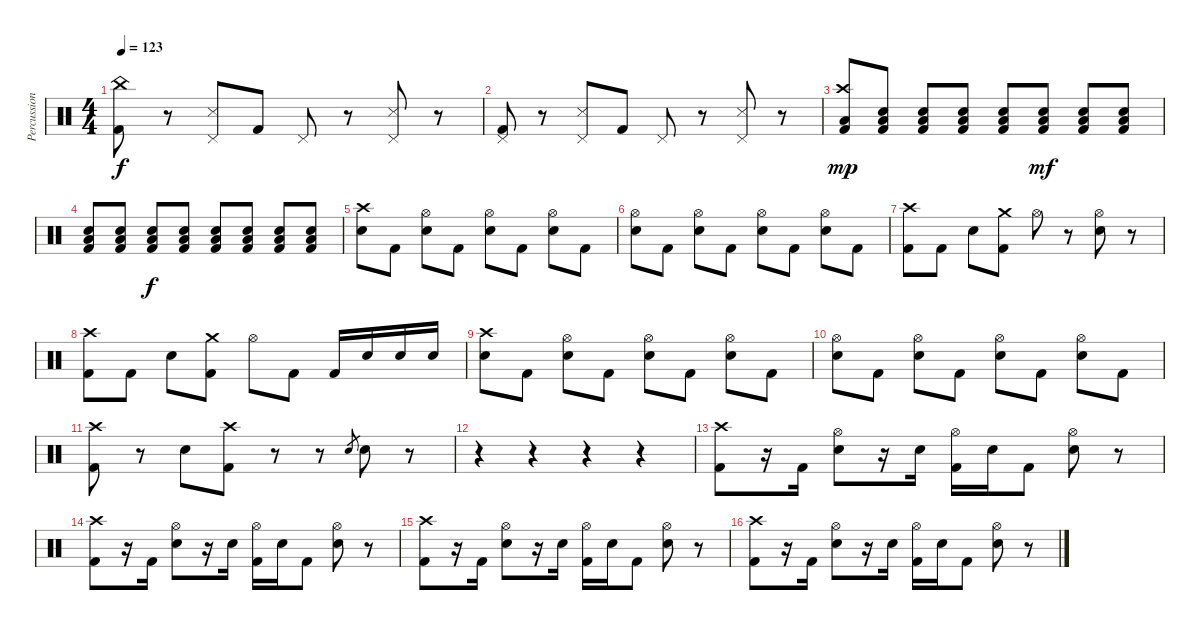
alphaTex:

\track ("Percussioni" "Percussion") {instrument percussion}
\staff {score}
\articulation defaults
\ts (4 4)
\tempo 123
\clef neutral
\ks c
("China (hit)" "Kick (hit) 2").8{dy f} r.8 ("Pedal Hi-Hat (hit)" "Snare (side stick) 3").8 "Kick (hit) 2".8 "Pedal Hi-Hat (hit)".8 r.8 ("Pedal Hi-Hat (hit)" "Snare (side stick) 3").8 r.8 |
("Pedal Hi-Hat (hit)" "Kick (hit) 2").8 r.8 ("Pedal Hi-Hat (hit)" "Snare (side stick) 3").8 "Kick (hit) 2".8 "Pedal Hi-Hat (hit)".8 r.8 ("Pedal Hi-Hat (hit)" "Snare (side stick) 3").8 r.8 |
("Crash high (hit)" "Kick (hit) 2" "Low Floor Tom (hit)").8{dy mp} ("Electric Snare (hit)" "Kick (hit) 2" "Low Floor Tom (hit)").8 ("Electric Snare (hit)" "Kick (hit) 2" "Low Floor Tom (hit)").8 ("Electric Snare (hit)" "Kick (hit) 2" "Low Floor Tom (hit)").8 ("Electric Snare (hit)" "Kick (hit) 2" "Low Floor Tom (hit)").8 ("Electric Snare (hit)" "Kick (hit) 2" "Low Floor Tom (hit)").8{dy mf} ("Electric Snare (hit)" "Kick (hit) 2" "Low Floor Tom (hit)").8 ("Electric Snare (hit)" "Kick (hit) 2" "Low Floor Tom (hit)").8 |
("Electric Snare (hit)" "Kick (hit) 2" "Low Floor Tom (hit)").8 ("Electric Snare (hit)" "Kick (hit) 2" "Low Floor Tom (hit)").8 ("Electric Snare (hit)" "Kick (hit) 2" "Low Floor Tom (hit)").8{dy f} ("Electric Snare (hit)" "Kick (hit) 2" "Low Floor Tom (hit)").8 ("Electric Snare (hit)" "Kick (hit) 2" "Low Floor Tom (hit)").8 ("Electric Snare (hit)" "Kick (hit) 2" "Low Floor Tom (hit)").8 ("Electric Snare (hit)" "Kick (hit) 2" "Low Floor Tom (hit)").8 ("Electric Snare (hit)" "Kick (hit) 2" "Low Floor Tom (hit)").8 |
("Crash high (hit)" "Electric Snare (hit)").8 "Kick (hit) 2".8 ("Hi-Hat (open)" "Electric Snare (hit)").8 "Kick (hit) 2".8 ("Hi-Hat (open)" "Electric Snare (hit)").8 "Kick (hit) 2".8 ("Hi-Hat (open)" "Electric Snare (hit)").8 "Kick (hit) 2".8 |
("Hi-Hat (open)" "Electric Snare (hit)").8 "Kick (hit) 2".8 ("Hi-Hat (open)" "Electric Snare (hit)").8 "Kick (hit) 2".8 ("Hi-Hat (open)" "Electric Snare (hit)").8 "Kick (hit) 2".8 ("Hi-Hat (open)" "Electric Snare (hit)").8 "Kick (hit) 2".8 |
("Crash high (hit)" "Kick (hit) 2").8 "Kick (hit) 2".8 "Electric Snare (hit)".8 ("Crash medium (hit)" "Kick (hit) 2").8 "Hi-Hat (open)".8 r.8 ("Hi-Hat (open)" "Electric Snare (hit)").8 r.8 |
("Crash high (hit)" "Kick (hit) 2").8 "Kick (hit) 2".8 "Electric Snare (hit)".8 ("Crash medium (hit)" "Kick (hit) 2").8 "Hi-Hat (open)".8 "Kick (hit) 2".8 "Kick (hit) 2".16 "Electric Snare (hit)".16 "Electric Snare (hit)".16 "Electric Snare (hit)".16 |
("Crash high (hit)" "Electric Snare (hit)").8 "Kick (hit) 2".8 ("Hi-Hat (open)" "Electric Snare (hit)").8 "Kick (hit) 2".8 ("Hi-Hat (open)" "Electric Snare (hit)").8 "Kick (hit) 2".8 ("Hi-Hat (open)" "Electric Snare (hit)").8 "Kick (hit) 2".8 |
("Hi-Hat (open)" "Electric Snare (hit)").8 "Kick (hit) 2".8 ("Hi-Hat (open)" "Electric Snare (hit)").8 "Kick (hit) 2".8 ("Hi-Hat (open)" "Electric Snare (hit)").8 "Kick (hit) 2".8 ("Hi-Hat (open)" "Electric Snare (hit)").8 "Kick (hit) 2".8 |
("Crash high (hit)" "Kick (hit) 2").8 r.8 "Electric Snare (hit)".8 ("Crash high (hit)" "Kick (hit) 2").8 r.8 r.8 "Electric Snare (hit)".8{gr} "Electric Snare (hit)".8 r.8 |
r.4 r.4 r.4 r.4 |
("Crash high (hit)" "Kick (hit) 2").8 r.16 "Kick (hit) 2".16 ("Hi-Hat (open)" "Electric Snare (hit)").8 r.16 "Electric Snare (hit)".16 ("Hi-Hat (open)" "Kick (hit) 2").16 "Electric Snare (hit)".16 "Kick (hit) 2".8 ("Hi-Hat (open)" "Electric Snare (hit)").8 r.8 |
("Crash high (hit)" "Kick (hit) 2").8 r.16 "Kick (hit) 2".16 ("Hi-Hat (open)" "Electric Snare (hit)").8 r.16 "Electric Snare (hit)".16 ("Hi-Hat (open)" "Kick (hit) 2").16 "Electric Snare (hit)".16 "Kick (hit) 2".8 ("Hi-Hat (open)" "Electric Snare (hit)").8 r.8 |
("Crash high (hit)" "Kick (hit) 2").8 r.16 "Kick (hit) 2".16 ("Hi-Hat (open)" "Electric Snare (hit)").8 r.16 "Electric Snare (hit)".16 ("Hi-Hat (open)" "Kick (hit) 2").16 "Electric Snare (hit)".16 "Kick (hit) 2".8 ("Hi-Hat (open)" "Electric Snare (hit)").8 r.8 |
("Crash high (hit)" "Kick (hit) 2").8 r.16 "Kick (hit) 2".16 ("Hi-Hat (open)" "Electric Snare (hit)").8 r.16 "Electric Snare (hit)".16 ("Hi-Hat (open)" "Kick (hit) 2").16 "Electric Snare (hit)".16 "Kick (hit) 2".8 ("Hi-Hat (open)" "Electric Snare (hit)").8 r.8
